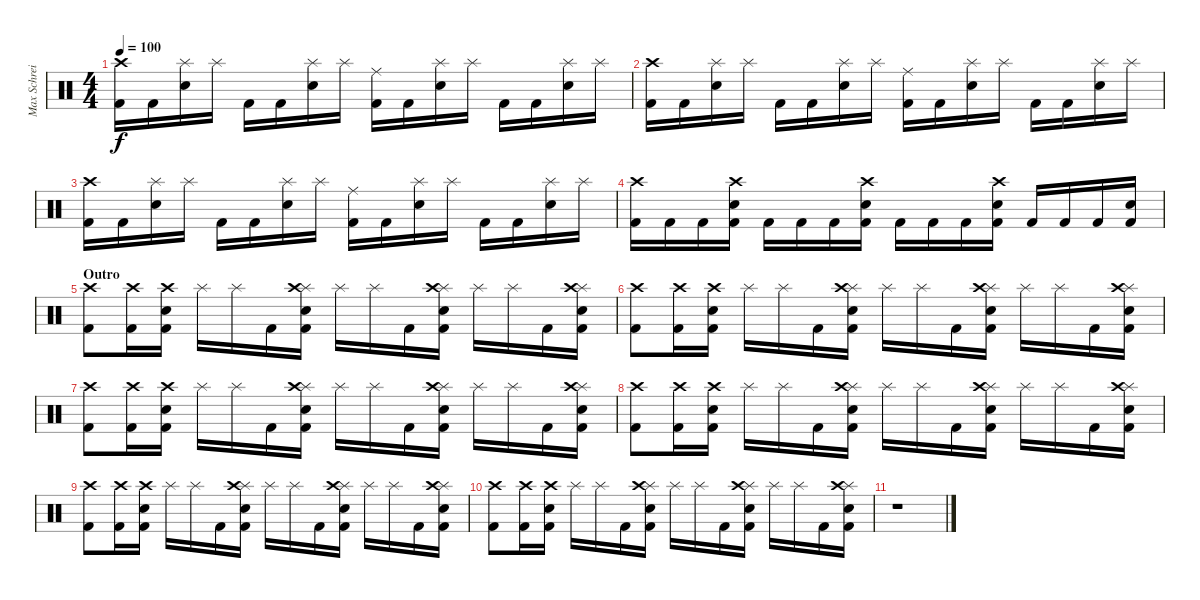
\track ("Max Schreiber " "Max Schrei") {instrument percussion}
\staff {score}
\articulation defaults
\ts (4 4)
\tempo 100
\clef neutral
\ks c
("Crash high (hit)" "Kick (hit) 2").16{dy f} "Kick (hit) 2".16 ("Splash (hit)" "Electric Snare (hit)").16 "Splash (hit)".16 "Kick (hit) 2".16 "Kick (hit) 2".16 ("Splash (hit)" "Electric Snare (hit)").16 "Splash (hit)".16 ("Ride (middle)" "Kick (hit) 2").16 "Kick (hit) 2".16 ("Splash (hit)" "Electric Snare (hit)").16 "Splash (hit)".16 "Kick (hit) 2".16 "Kick (hit) 2".16 ("Splash (hit)" "Electric Snare (hit)").16 "Splash (hit)".16 |
("Crash high (hit)" "Kick (hit) 2").16 "Kick (hit) 2".16 ("Splash (hit)" "Electric Snare (hit)").16 "Splash (hit)".16 "Kick (hit) 2".16 "Kick (hit) 2".16 ("Splash (hit)" "Electric Snare (hit)").16 "Splash (hit)".16 ("Ride (middle)" "Kick (hit) 2").16 "Kick (hit) 2".16 ("Splash (hit)" "Electric Snare (hit)").16 "Splash (hit)".16 "Kick (hit) 2".16 "Kick (hit) 2".16 ("Splash (hit)" "Electric Snare (hit)").16 "Splash (hit)".16 |
("Crash high (hit)" "Kick (hit) 2").16 "Kick (hit) 2".16 ("Splash (hit)" "Electric Snare (hit)").16 "Splash (hit)".16 "Kick (hit) 2".16 "Kick (hit) 2".16 ("Splash (hit)" "Electric Snare (hit)").16 "Splash (hit)".16 ("Ride (middle)" "Kick (hit) 2").16 "Kick (hit) 2".16 ("Splash (hit)" "Electric Snare (hit)").16 "Splash (hit)".16 "Kick (hit) 2".16 "Kick (hit) 2".16 ("Splash (hit)" "Electric Snare (hit)").16 "Splash (hit)".16 |
("Crash high (hit)" "Kick (hit) 2").16 "Kick (hit) 2".16 "Kick (hit) 2".16 ("Crash high (hit)" "Electric Snare (hit)" "Kick (hit) 2").16 "Kick (hit) 2".16 "Kick (hit) 2".16 "Kick (hit) 2".16 ("Crash high (hit)" "Electric Snare (hit)" "Kick (hit) 2").16 "Kick (hit) 2".16 "Kick (hit) 2".16 "Kick (hit) 2".16 ("Crash high (hit)" "Electric Snare (hit)" "Kick (hit) 2").16 "Kick (hit) 2".16 "Kick (hit) 2".16 "Kick (hit) 2".16 ("Electric Snare (hit)" "Kick (hit) 2").16 |
\section ("" "Outro")
("Crash high (hit)" "Kick (hit) 2").8 ("Crash high (hit)" "Kick (hit) 2").16 ("Crash high (hit)" "Electric Snare (hit)" "Kick (hit) 2").16 "Splash (hit)".16 "Splash (hit)".16 "Kick (hit) 2".16 ("Splash (hit)" "Crash high (hit)" "Electric Snare (hit)" "Kick (hit) 2").16 "Splash (hit)".16 "Splash (hit)".16 "Kick (hit) 2".16 ("Splash (hit)" "Crash high (hit)" "Electric Snare (hit)" "Kick (hit) 2").16 "Splash (hit)".16 "Splash (hit)".16 "Kick (hit) 2".16 ("Splash (hit)" "Crash high (hit)" "Electric Snare (hit)" "Kick (hit) 2").16 |
("Crash high (hit)" "Kick (hit) 2").8 ("Crash high (hit)" "Kick (hit) 2").16 ("Crash high (hit)" "Electric Snare (hit)" "Kick (hit) 2").16 "Splash (hit)".16 "Splash (hit)".16 "Kick (hit) 2".16 ("Splash (hit)" "Crash high (hit)" "Electric Snare (hit)" "Kick (hit) 2").16 "Splash (hit)".16 "Splash (hit)".16 "Kick (hit) 2".16 ("Splash (hit)" "Crash high (hit)" "Electric Snare (hit)" "Kick (hit) 2").16 "Splash (hit)".16 "Splash (hit)".16 "Kick (hit) 2".16 ("Splash (hit)" "Crash high (hit)" "Electric Snare (hit)" "Kick (hit) 2").16 |
("Crash high (hit)" "Kick (hit) 2").8 ("Crash high (hit)" "Kick (hit) 2").16 ("Crash high (hit)" "Electric Snare (hit)" "Kick (hit) 2").16 "Splash (hit)".16 "Splash (hit)".16 "Kick (hit) 2".16 ("Splash (hit)" "Crash high (hit)" "Electric Snare (hit)" "Kick (hit) 2").16 "Splash (hit)".16 "Splash (hit)".16 "Kick (hit) 2".16 ("Splash (hit)" "Crash high (hit)" "Electric Snare (hit)" "Kick (hit) 2").16 "Splash (hit)".16 "Splash (hit)".16 "Kick (hit) 2".16 ("Splash (hit)" "Crash high (hit)" "Electric Snare (hit)" "Kick (hit) 2").16 |
("Crash high (hit)" "Kick (hit) 2").8 ("Crash high (hit)" "Kick (hit) 2").16 ("Crash high (hit)" "Electric Snare (hit)" "Kick (hit) 2").16 "Splash (hit)".16 "Splash (hit)".16 "Kick (hit) 2".16 ("Splash (hit)" "Crash high (hit)" "Electric Snare (hit)" "Kick (hit) 2").16 "Splash (hit)".16 "Splash (hit)".16 "Kick (hit) 2".16 ("Splash (hit)" "Crash high (hit)" "Electric Snare (hit)" "Kick (hit) 2").16 "Splash (hit)".16 "Splash (hit)".16 "Kick (hit) 2".16 ("Splash (hit)" "Crash high (hit)" "Electric Snare (hit)" "Kick (hit) 2").16 |
("Crash high (hit)" "Kick (hit) 2").8 ("Crash high (hit)" "Kick (hit) 2").16 ("Crash high (hit)" "Electric Snare (hit)" "Kick (hit) 2").16 "Splash (hit)".16 "Splash (hit)".16 "Kick (hit) 2".16 ("Splash (hit)" "Crash high (hit)" "Electric Snare (hit)" "Kick (hit) 2").16 "Splash (hit)".16 "Splash (hit)".16 "Kick (hit) 2".16 ("Splash (hit)" "Crash high (hit)" "Electric Snare (hit)" "Kick (hit) 2").16 "Splash (hit)".16 "Splash (hit)".16 "Kick (hit) 2".16 ("Splash (hit)" "Crash high (hit)" "Electric Snare (hit)" "Kick (hit) 2").16 |
("Crash high (hit)" "Kick (hit) 2").8 ("Crash high (hit)" "Kick (hit) 2").16 ("Crash high (hit)" "Electric Snare (hit)" "Kick (hit) 2").16 "Splash (hit)".16 "Splash (hit)".16 "Kick (hit) 2".16 ("Splash (hit)" "Crash high (hit)" "Electric Snare (hit)" "Kick (hit) 2").16 "Splash (hit)".16 "Splash (hit)".16 "Kick (hit) 2".16 ("Splash (hit)" "Crash high (hit)" "Electric Snare (hit)" "Kick (hit) 2").16 "Splash (hit)".16 "Splash (hit)".16 "Kick (hit) 2".16 ("Splash (hit)" "Crash high (hit)" "Electric Snare (hit)" "Kick (hit) 2").16 |
r.1
